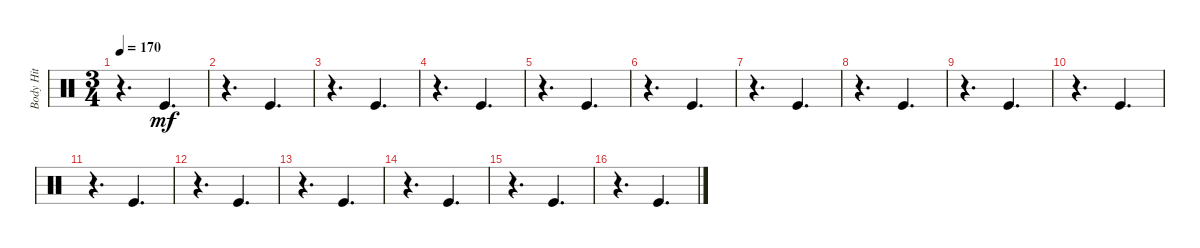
\track ("Body Hit" "Body Hit") {instrument percussion}
\staff {score}
\articulation defaults
\ts (3 4)
\tempo 170
\clef neutral
\ks c
r.4{d dy mf} "Kick (hit)".4{d} |
r.4{d} "Kick (hit)".4{d} |
r.4{d} "Kick (hit)".4{d} |
r.4{d} "Kick (hit)".4{d} |
r.4{d} "Kick (hit)".4{d} |
r.4{d} "Kick (hit)".4{d} |
r.4{d} "Kick (hit)".4{d} |
r.4{d} "Kick (hit)".4{d} |
r.4{d} "Kick (hit)".4{d} |
r.4{d} "Kick (hit)".4{d} |
r.4{d} "Kick (hit)".4{d} |
r.4{d} "Kick (hit)".4{d} |
r.4{d} "Kick (hit)".4{d} |
r.4{d} "Kick (hit)".4{d} |
r.4{d} "Kick (hit)".4{d} |
r.4{d} "Kick (hit)".4{d}
